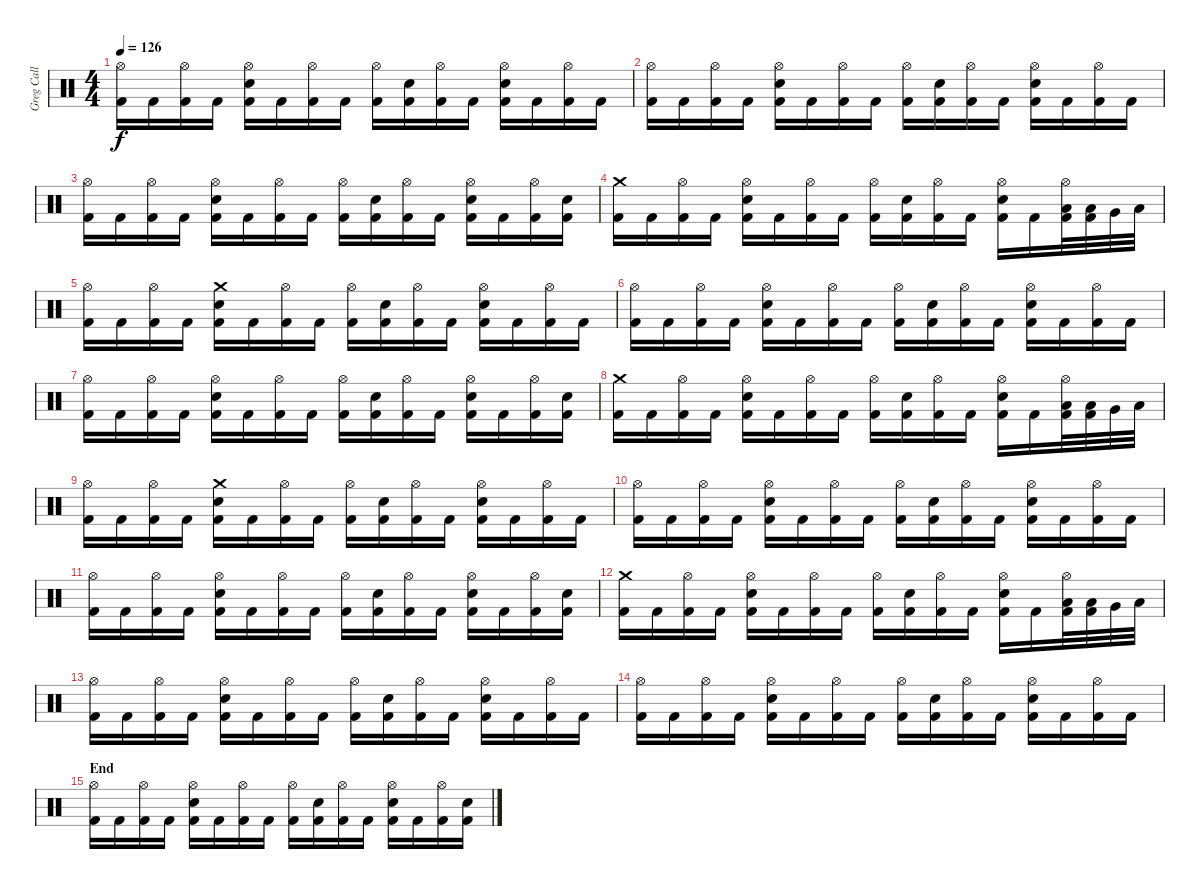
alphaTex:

\track ("Greg Call (Drums)" "Greg Call ") {instrument percussion}
\staff {score}
\articulation defaults
\ts (4 4)
\tempo 126
\clef neutral
\ks c
("Hi-Hat (open)" "Kick (hit) 2").16{dy f} "Kick (hit) 2".16 ("Hi-Hat (open)" "Kick (hit) 2").16 "Kick (hit) 2".16 ("Hi-Hat (open)" "Snare (hit) 2" "Kick (hit) 2").16 "Kick (hit) 2".16 ("Hi-Hat (open)" "Kick (hit) 2").16 "Kick (hit) 2".16 ("Hi-Hat (open)" "Kick (hit) 2").16 ("Snare (hit) 2" "Kick (hit) 2").16 ("Hi-Hat (open)" "Kick (hit) 2").16 "Kick (hit) 2".16 ("Hi-Hat (open)" "Snare (hit) 2" "Kick (hit) 2").16 "Kick (hit) 2".16 ("Hi-Hat (open)" "Kick (hit) 2").16 "Kick (hit) 2".16 |
("Hi-Hat (open)" "Kick (hit) 2").16 "Kick (hit) 2".16 ("Hi-Hat (open)" "Kick (hit) 2").16 "Kick (hit) 2".16 ("Hi-Hat (open)" "Snare (hit) 2" "Kick (hit) 2").16 "Kick (hit) 2".16 ("Hi-Hat (open)" "Kick (hit) 2").16 "Kick (hit) 2".16 ("Hi-Hat (open)" "Kick (hit) 2").16 ("Snare (hit) 2" "Kick (hit) 2").16 ("Hi-Hat (open)" "Kick (hit) 2").16 "Kick (hit) 2".16 ("Hi-Hat (open)" "Snare (hit) 2" "Kick (hit) 2").16 "Kick (hit) 2".16 ("Hi-Hat (open)" "Kick (hit) 2").16 "Kick (hit) 2".16 |
("Hi-Hat (open)" "Kick (hit) 2").16 "Kick (hit) 2".16 ("Hi-Hat (open)" "Kick (hit) 2").16 "Kick (hit) 2".16 ("Hi-Hat (open)" "Snare (hit) 2" "Kick (hit) 2").16 "Kick (hit) 2".16 ("Hi-Hat (open)" "Kick (hit) 2").16 "Kick (hit) 2".16 ("Hi-Hat (open)" "Kick (hit) 2").16 ("Snare (hit) 2" "Kick (hit) 2").16 ("Hi-Hat (open)" "Kick (hit) 2").16 "Kick (hit) 2".16 ("Hi-Hat (open)" "Snare (hit) 2" "Kick (hit) 2").16 "Kick (hit) 2".16 ("Hi-Hat (open)" "Kick (hit) 2").16 ("Snare (hit) 2" "Kick (hit) 2").16 |
("Crash medium (hit)" "Kick (hit) 2").16 "Kick (hit) 2".16 ("Hi-Hat (open)" "Kick (hit) 2").16 "Kick (hit) 2".16 ("Hi-Hat (open)" "Snare (hit) 2" "Kick (hit) 2").16 "Kick (hit) 2".16 ("Hi-Hat (open)" "Kick (hit) 2").16 "Kick (hit) 2".16 ("Hi-Hat (open)" "Kick (hit) 2").16 ("Snare (hit) 2" "Kick (hit) 2").16 ("Hi-Hat (open)" "Kick (hit) 2").16 "Kick (hit) 2".16 ("Hi-Hat (open)" "Snare (hit) 2" "Kick (hit) 2").16 "Kick (hit) 2".16 ("Hi-Hat (open)" "Low Tom (hit)" "Kick (hit) 2").32 ("Low Tom (hit)" "Kick (hit) 2").32 "Very Low Tom (hit)".32 "Low Floor Tom (hit)".32 |
("Hi-Hat (open)" "Kick (hit) 2").16 "Kick (hit) 2".16 ("Hi-Hat (open)" "Kick (hit) 2").16 "Kick (hit) 2".16 ("Crash medium (hit)" "Snare (hit) 2" "Kick (hit) 2").16 "Kick (hit) 2".16 ("Hi-Hat (open)" "Kick (hit) 2").16 "Kick (hit) 2".16 ("Hi-Hat (open)" "Kick (hit) 2").16 ("Snare (hit) 2" "Kick (hit) 2").16 ("Hi-Hat (open)" "Kick (hit) 2").16 "Kick (hit) 2".16 ("Hi-Hat (open)" "Snare (hit) 2" "Kick (hit) 2").16 "Kick (hit) 2".16 ("Hi-Hat (open)" "Kick (hit) 2").16 "Kick (hit) 2".16 |
("Hi-Hat (open)" "Kick (hit) 2").16 "Kick (hit) 2".16 ("Hi-Hat (open)" "Kick (hit) 2").16 "Kick (hit) 2".16 ("Hi-Hat (open)" "Snare (hit) 2" "Kick (hit) 2").16 "Kick (hit) 2".16 ("Hi-Hat (open)" "Kick (hit) 2").16 "Kick (hit) 2".16 ("Hi-Hat (open)" "Kick (hit) 2").16 ("Snare (hit) 2" "Kick (hit) 2").16 ("Hi-Hat (open)" "Kick (hit) 2").16 "Kick (hit) 2".16 ("Hi-Hat (open)" "Snare (hit) 2" "Kick (hit) 2").16 "Kick (hit) 2".16 ("Hi-Hat (open)" "Kick (hit) 2").16 "Kick (hit) 2".16 |
("Hi-Hat (open)" "Kick (hit) 2").16 "Kick (hit) 2".16 ("Hi-Hat (open)" "Kick (hit) 2").16 "Kick (hit) 2".16 ("Hi-Hat (open)" "Snare (hit) 2" "Kick (hit) 2").16 "Kick (hit) 2".16 ("Hi-Hat (open)" "Kick (hit) 2").16 "Kick (hit) 2".16 ("Hi-Hat (open)" "Kick (hit) 2").16 ("Snare (hit) 2" "Kick (hit) 2").16 ("Hi-Hat (open)" "Kick (hit) 2").16 "Kick (hit) 2".16 ("Hi-Hat (open)" "Snare (hit) 2" "Kick (hit) 2").16 "Kick (hit) 2".16 ("Hi-Hat (open)" "Kick (hit) 2").16 ("Snare (hit) 2" "Kick (hit) 2").16 |
("Crash medium (hit)" "Kick (hit) 2").16 "Kick (hit) 2".16 ("Hi-Hat (open)" "Kick (hit) 2").16 "Kick (hit) 2".16 ("Hi-Hat (open)" "Snare (hit) 2" "Kick (hit) 2").16 "Kick (hit) 2".16 ("Hi-Hat (open)" "Kick (hit) 2").16 "Kick (hit) 2".16 ("Hi-Hat (open)" "Kick (hit) 2").16 ("Snare (hit) 2" "Kick (hit) 2").16 ("Hi-Hat (open)" "Kick (hit) 2").16 "Kick (hit) 2".16 ("Hi-Hat (open)" "Snare (hit) 2" "Kick (hit) 2").16 "Kick (hit) 2".16 ("Hi-Hat (open)" "Low Tom (hit)" "Kick (hit) 2").32 ("Low Tom (hit)" "Kick (hit) 2").32 "Very Low Tom (hit)".32 "Low Floor Tom (hit)".32 |
("Hi-Hat (open)" "Kick (hit) 2").16 "Kick (hit) 2".16 ("Hi-Hat (open)" "Kick (hit) 2").16 "Kick (hit) 2".16 ("Crash medium (hit)" "Snare (hit) 2" "Kick (hit) 2").16 "Kick (hit) 2".16 ("Hi-Hat (open)" "Kick (hit) 2").16 "Kick (hit) 2".16 ("Hi-Hat (open)" "Kick (hit) 2").16 ("Snare (hit) 2" "Kick (hit) 2").16 ("Hi-Hat (open)" "Kick (hit) 2").16 "Kick (hit) 2".16 ("Hi-Hat (open)" "Snare (hit) 2" "Kick (hit) 2").16 "Kick (hit) 2".16 ("Hi-Hat (open)" "Kick (hit) 2").16 "Kick (hit) 2".16 |
("Hi-Hat (open)" "Kick (hit) 2").16 "Kick (hit) 2".16 ("Hi-Hat (open)" "Kick (hit) 2").16 "Kick (hit) 2".16 ("Hi-Hat (open)" "Snare (hit) 2" "Kick (hit) 2").16 "Kick (hit) 2".16 ("Hi-Hat (open)" "Kick (hit) 2").16 "Kick (hit) 2".16 ("Hi-Hat (open)" "Kick (hit) 2").16 ("Snare (hit) 2" "Kick (hit) 2").16 ("Hi-Hat (open)" "Kick (hit) 2").16 "Kick (hit) 2".16 ("Hi-Hat (open)" "Snare (hit) 2" "Kick (hit) 2").16 "Kick (hit) 2".16 ("Hi-Hat (open)" "Kick (hit) 2").16 "Kick (hit) 2".16 |
("Hi-Hat (open)" "Kick (hit) 2").16 "Kick (hit) 2".16 ("Hi-Hat (open)" "Kick (hit) 2").16 "Kick (hit) 2".16 ("Hi-Hat (open)" "Snare (hit) 2" "Kick (hit) 2").16 "Kick (hit) 2".16 ("Hi-Hat (open)" "Kick (hit) 2").16 "Kick (hit) 2".16 ("Hi-Hat (open)" "Kick (hit) 2").16 ("Snare (hit) 2" "Kick (hit) 2").16 ("Hi-Hat (open)" "Kick (hit) 2").16 "Kick (hit) 2".16 ("Hi-Hat (open)" "Snare (hit) 2" "Kick (hit) 2").16 "Kick (hit) 2".16 ("Hi-Hat (open)" "Kick (hit) 2").16 ("Snare (hit) 2" "Kick (hit) 2").16 |
("Crash medium (hit)" "Kick (hit) 2").16{volume 0} "Kick (hit) 2".16 ("Hi-Hat (open)" "Kick (hit) 2").16 "Kick (hit) 2".16 ("Hi-Hat (open)" "Snare (hit) 2" "Kick (hit) 2").16 "Kick (hit) 2".16 ("Hi-Hat (open)" "Kick (hit) 2").16 "Kick (hit) 2".16 ("Hi-Hat (open)" "Kick (hit) 2").16 ("Snare (hit) 2" "Kick (hit) 2").16 ("Hi-Hat (open)" "Kick (hit) 2").16 "Kick (hit) 2".16 ("Hi-Hat (open)" "Snare (hit) 2" "Kick (hit) 2").16 "Kick (hit) 2".16 ("Hi-Hat (open)" "Low Tom (hit)" "Kick (hit) 2").32 ("Low Tom (hit)" "Kick (hit) 2").32 "Very Low Tom (hit)".32 "Low Floor Tom (hit)".32 |
("Hi-Hat (open)" "Kick (hit) 2").16 "Kick (hit) 2".16 ("Hi-Hat (open)" "Kick (hit) 2").16 "Kick (hit) 2".16 ("Hi-Hat (open)" "Snare (hit) 2" "Kick (hit) 2").16 "Kick (hit) 2".16 ("Hi-Hat (open)" "Kick (hit) 2").16 "Kick (hit) 2".16 ("Hi-Hat (open)" "Kick (hit) 2").16 ("Snare (hit) 2" "Kick (hit) 2").16 ("Hi-Hat (open)" "Kick (hit) 2").16 "Kick (hit) 2".16 ("Hi-Hat (open)" "Snare (hit) 2" "Kick (hit) 2").16 "Kick (hit) 2".16 ("Hi-Hat (open)" "Kick (hit) 2").16 "Kick (hit) 2".16 |
("Hi-Hat (open)" "Kick (hit) 2").16 "Kick (hit) 2".16 ("Hi-Hat (open)" "Kick (hit) 2").16 "Kick (hit) 2".16 ("Hi-Hat (open)" "Snare (hit) 2" "Kick (hit) 2").16 "Kick (hit) 2".16 ("Hi-Hat (open)" "Kick (hit) 2").16 "Kick (hit) 2".16 ("Hi-Hat (open)" "Kick (hit) 2").16 ("Snare (hit) 2" "Kick (hit) 2").16 ("Hi-Hat (open)" "Kick (hit) 2").16 "Kick (hit) 2".16 ("Hi-Hat (open)" "Snare (hit) 2" "Kick (hit) 2").16 "Kick (hit) 2".16 ("Hi-Hat (open)" "Kick (hit) 2").16 "Kick (hit) 2".16 |
\section ("" "End")
("Hi-Hat (open)" "Kick (hit) 2").16 "Kick (hit) 2".16 ("Hi-Hat (open)" "Kick (hit) 2").16 "Kick (hit) 2".16 ("Hi-Hat (open)" "Snare (hit) 2" "Kick (hit) 2").16 "Kick (hit) 2".16 ("Hi-Hat (open)" "Kick (hit) 2").16 "Kick (hit) 2".16 ("Hi-Hat (open)" "Kick (hit) 2").16 ("Snare (hit) 2" "Kick (hit) 2").16 ("Hi-Hat (open)" "Kick (hit) 2").16 "Kick (hit) 2".16 ("Hi-Hat (open)" "Snare (hit) 2" "Kick (hit) 2").16 "Kick (hit) 2".16 ("Hi-Hat (open)" "Kick (hit) 2").16 ("Snare (hit) 2" "Kick (hit) 2").16
